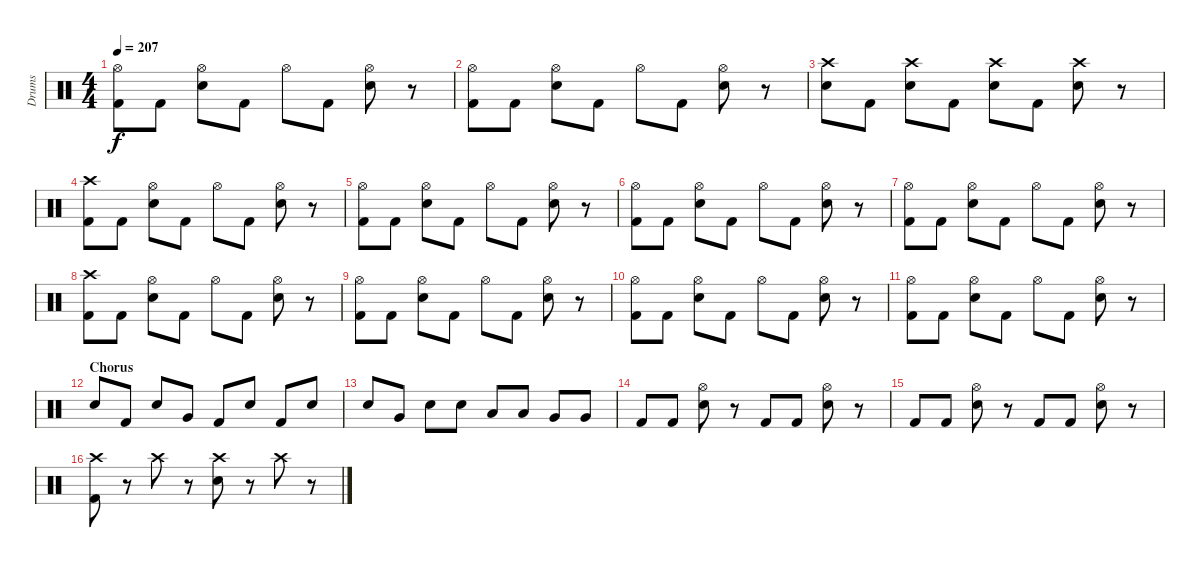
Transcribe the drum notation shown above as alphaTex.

\track ("Drums" "Drums") {instrument percussion}
\staff {score}
\articulation defaults
\ts (4 4)
\tempo 207
\clef neutral
\ks c
("Hi-Hat (open)" "Kick (hit) 2").8{dy f} "Kick (hit) 2".8 ("Hi-Hat (open)" "Snare (hit) 2").8 "Kick (hit) 2".8 "Hi-Hat (open)".8 "Kick (hit) 2".8 ("Hi-Hat (open)" "Snare (hit) 2").8 r.8 |
("Hi-Hat (open)" "Kick (hit) 2").8 "Kick (hit) 2".8 ("Hi-Hat (open)" "Snare (hit) 2").8 "Kick (hit) 2".8 "Hi-Hat (open)".8 "Kick (hit) 2".8 ("Hi-Hat (open)" "Snare (hit) 2").8 r.8 |
("Crash high (hit)" "Snare (hit) 2").8 "Kick (hit) 2".8 ("Crash high (hit)" "Snare (hit) 2").8 "Kick (hit) 2".8 ("Crash high (hit)" "Snare (hit) 2").8 "Kick (hit) 2".8 ("Crash high (hit)" "Snare (hit) 2").8 r.8 |
("Crash high (hit)" "Kick (hit) 2").8 "Kick (hit) 2".8 ("Hi-Hat (open)" "Snare (hit) 2").8 "Kick (hit) 2".8 "Hi-Hat (open)".8 "Kick (hit) 2".8 ("Hi-Hat (open)" "Snare (hit) 2").8 r.8 |
("Hi-Hat (open)" "Kick (hit) 2").8 "Kick (hit) 2".8 ("Hi-Hat (open)" "Snare (hit) 2").8 "Kick (hit) 2".8 "Hi-Hat (open)".8 "Kick (hit) 2".8 ("Hi-Hat (open)" "Snare (hit) 2").8 r.8 |
("Hi-Hat (open)" "Kick (hit) 2").8 "Kick (hit) 2".8 ("Hi-Hat (open)" "Snare (hit) 2").8 "Kick (hit) 2".8 "Hi-Hat (open)".8 "Kick (hit) 2".8 ("Hi-Hat (open)" "Snare (hit) 2").8 r.8 |
("Hi-Hat (open)" "Kick (hit) 2").8 "Kick (hit) 2".8 ("Hi-Hat (open)" "Snare (hit) 2").8 "Kick (hit) 2".8 "Hi-Hat (open)".8 "Kick (hit) 2".8 ("Hi-Hat (open)" "Snare (hit) 2").8 r.8 |
("Crash high (hit)" "Kick (hit) 2").8 "Kick (hit) 2".8 ("Hi-Hat (open)" "Snare (hit) 2").8 "Kick (hit) 2".8 "Hi-Hat (open)".8 "Kick (hit) 2".8 ("Hi-Hat (open)" "Snare (hit) 2").8 r.8 |
("Hi-Hat (open)" "Kick (hit) 2").8 "Kick (hit) 2".8 ("Hi-Hat (open)" "Snare (hit) 2").8 "Kick (hit) 2".8 "Hi-Hat (open)".8 "Kick (hit) 2".8 ("Hi-Hat (open)" "Snare (hit) 2").8 r.8 |
("Hi-Hat (open)" "Kick (hit) 2").8 "Kick (hit) 2".8 ("Hi-Hat (open)" "Snare (hit) 2").8 "Kick (hit) 2".8 "Hi-Hat (open)".8 "Kick (hit) 2".8 ("Hi-Hat (open)" "Snare (hit) 2").8 r.8 |
("Hi-Hat (open)" "Kick (hit) 2").8 "Kick (hit) 2".8 ("Hi-Hat (open)" "Snare (hit) 2").8 "Kick (hit) 2".8 "Hi-Hat (open)".8 "Kick (hit) 2".8 ("Hi-Hat (open)" "Snare (hit) 2").8 r.8 |
\section ("" "Chorus")
"Snare (hit) 2".8 "Kick (hit) 2".8 "Snare (hit) 2".8 "Very Low Tom (hit)".8 "Kick (hit) 2".8 "Snare (hit) 2".8 "Kick (hit) 2".8 "Snare (hit) 2".8 |
"Snare (hit) 2".8 "Very Low Tom (hit)".8 "Snare (hit) 2".8 "Snare (hit) 2".8 "Low Tom (hit)".8 "Low Tom (hit)".8 "Very Low Tom (hit)".8 "Very Low Tom (hit)".8 |
"Kick (hit) 2".8 "Kick (hit) 2".8 ("Hi-Hat (open)" "Snare (hit) 2").8 r.8 "Kick (hit) 2".8 "Kick (hit) 2".8 ("Hi-Hat (open)" "Snare (hit) 2").8 r.8 |
"Kick (hit) 2".8 "Kick (hit) 2".8 ("Hi-Hat (open)" "Snare (hit) 2").8 r.8 "Kick (hit) 2".8 "Kick (hit) 2".8 ("Hi-Hat (open)" "Snare (hit) 2").8 r.8 |
("Crash high (hit)" "Kick (hit) 2").8 r.8 "Crash high (hit)".8 r.8 ("Crash high (hit)" "Snare (hit) 2").8 r.8 "Crash high (hit)".8 r.8
